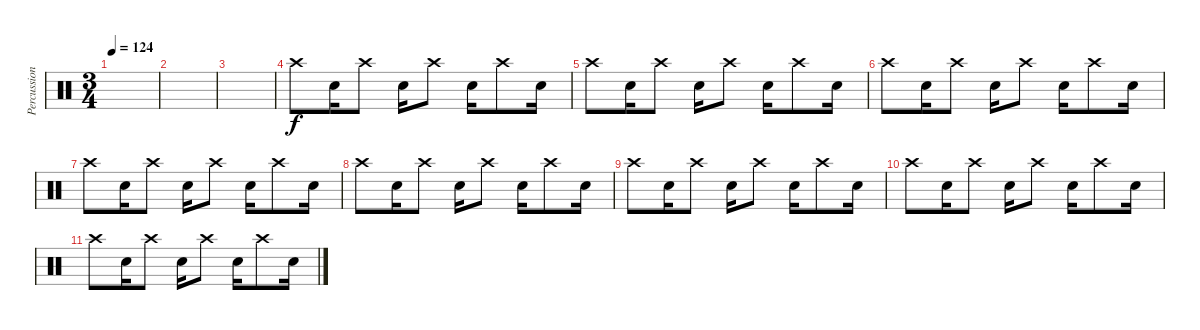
\track ("Percussion" "Percussion") {instrument percussion}
\staff {score}
\articulation defaults
\ts (3 4)
\tempo 124
\clef neutral
\ks c
|
|
|
"Crash high (hit)".8 "Electric Snare (hit)".16 "Crash high (hit)".8 "Electric Snare (hit)".16 "Crash high (hit)".8 "Electric Snare (hit)".16 "Crash high (hit)".8 "Electric Snare (hit)".16 |
"Crash high (hit)".8 "Electric Snare (hit)".16 "Crash high (hit)".8 "Electric Snare (hit)".16 "Crash high (hit)".8 "Electric Snare (hit)".16 "Crash high (hit)".8 "Electric Snare (hit)".16 |
"Crash high (hit)".8 "Electric Snare (hit)".16 "Crash high (hit)".8 "Electric Snare (hit)".16 "Crash high (hit)".8 "Electric Snare (hit)".16 "Crash high (hit)".8 "Electric Snare (hit)".16 |
"Crash high (hit)".8 "Electric Snare (hit)".16 "Crash high (hit)".8 "Electric Snare (hit)".16 "Crash high (hit)".8 "Electric Snare (hit)".16 "Crash high (hit)".8 "Electric Snare (hit)".16 |
"Crash high (hit)".8 "Electric Snare (hit)".16 "Crash high (hit)".8 "Electric Snare (hit)".16 "Crash high (hit)".8 "Electric Snare (hit)".16 "Crash high (hit)".8 "Electric Snare (hit)".16 |
"Crash high (hit)".8 "Electric Snare (hit)".16 "Crash high (hit)".8 "Electric Snare (hit)".16 "Crash high (hit)".8 "Electric Snare (hit)".16 "Crash high (hit)".8 "Electric Snare (hit)".16 |
"Crash high (hit)".8 "Electric Snare (hit)".16 "Crash high (hit)".8 "Electric Snare (hit)".16 "Crash high (hit)".8 "Electric Snare (hit)".16 "Crash high (hit)".8 "Electric Snare (hit)".16 |
"Crash high (hit)".8 "Electric Snare (hit)".16 "Crash high (hit)".8 "Electric Snare (hit)".16 "Crash high (hit)".8 "Electric Snare (hit)".16 "Crash high (hit)".8 "Electric Snare (hit)".16
